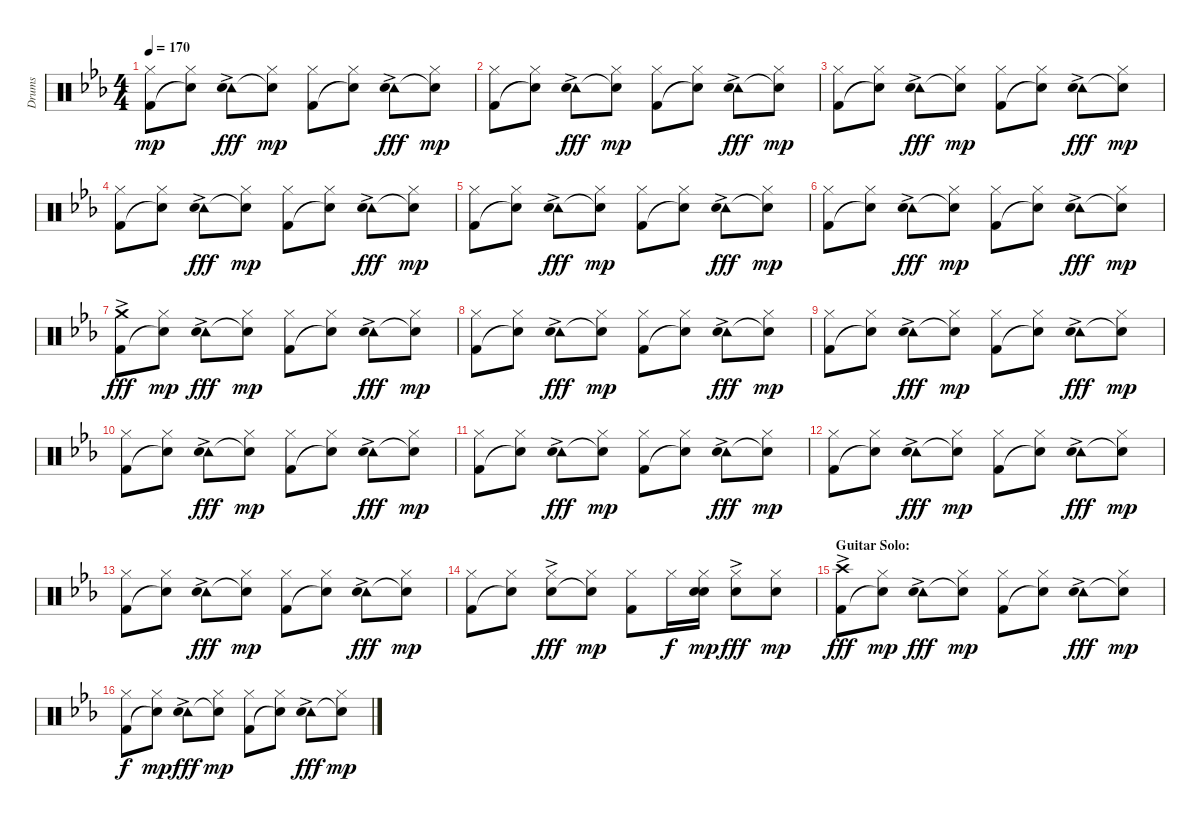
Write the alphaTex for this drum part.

\track ("Drums" "Drums") {instrument percussion}
\staff {score}
\articulation defaults
\ts (4 4)
\tempo 170
\clef neutral
\ks cminor
("Hi-Hat (closed)" "Kick (hit) 2").8{dy mp} ("Hi-Hat (closed)" "Snare (hit)"{t}).8 ("Tambourine (hit)"{ac} "Hand Clap (hit)").8{dy fff} ("Hi-Hat (closed)" "Snare (hit)"{t}).8{dy mp} ("Hi-Hat (closed)" "Kick (hit) 2").8 ("Hi-Hat (closed)" "Snare (hit)"{t}).8 ("Tambourine (hit)"{ac} "Hand Clap (hit)").8{dy fff} ("Hi-Hat (closed)" "Snare (hit)"{t}).8{dy mp} |
("Hi-Hat (closed)" "Kick (hit) 2").8 ("Hi-Hat (closed)" "Snare (hit)"{t}).8 ("Tambourine (hit)"{ac} "Hand Clap (hit)").8{dy fff} ("Hi-Hat (closed)" "Snare (hit)"{t}).8{dy mp} ("Hi-Hat (closed)" "Kick (hit) 2").8 ("Hi-Hat (closed)" "Snare (hit)"{t}).8 ("Tambourine (hit)"{ac} "Hand Clap (hit)").8{dy fff} ("Hi-Hat (closed)" "Snare (hit)"{t}).8{dy mp} |
("Hi-Hat (closed)" "Kick (hit) 2").8 ("Hi-Hat (closed)" "Snare (hit)"{t}).8 ("Tambourine (hit)"{ac} "Hand Clap (hit)").8{dy fff} ("Hi-Hat (closed)" "Snare (hit)"{t}).8{dy mp} ("Hi-Hat (closed)" "Kick (hit) 2").8 ("Hi-Hat (closed)" "Snare (hit)"{t}).8 ("Tambourine (hit)"{ac} "Hand Clap (hit)").8{dy fff} ("Hi-Hat (closed)" "Snare (hit)"{t}).8{dy mp} |
("Hi-Hat (closed)" "Kick (hit) 2").8 ("Hi-Hat (closed)" "Snare (hit)"{t}).8 ("Tambourine (hit)"{ac} "Hand Clap (hit)").8{dy fff} ("Hi-Hat (closed)" "Snare (hit)"{t}).8{dy mp} ("Hi-Hat (closed)" "Kick (hit) 2").8 ("Hi-Hat (closed)" "Snare (hit)"{t}).8 ("Tambourine (hit)"{ac} "Hand Clap (hit)").8{dy fff} ("Hi-Hat (closed)" "Snare (hit)"{t}).8{dy mp} |
("Hi-Hat (closed)" "Kick (hit) 2").8 ("Hi-Hat (closed)" "Snare (hit)"{t}).8 ("Tambourine (hit)"{ac} "Hand Clap (hit)").8{dy fff} ("Hi-Hat (closed)" "Snare (hit)"{t}).8{dy mp} ("Hi-Hat (closed)" "Kick (hit) 2").8 ("Hi-Hat (closed)" "Snare (hit)"{t}).8 ("Tambourine (hit)"{ac} "Hand Clap (hit)").8{dy fff} ("Hi-Hat (closed)" "Snare (hit)"{t}).8{dy mp} |
("Hi-Hat (closed)" "Kick (hit) 2").8 ("Hi-Hat (closed)" "Snare (hit)"{t}).8 ("Tambourine (hit)"{ac} "Hand Clap (hit)").8{dy fff} ("Hi-Hat (closed)" "Snare (hit)"{t}).8{dy mp} ("Hi-Hat (closed)" "Kick (hit) 2").8 ("Hi-Hat (closed)" "Snare (hit)"{t}).8 ("Tambourine (hit)"{ac} "Hand Clap (hit)").8{dy fff} ("Hi-Hat (closed)" "Snare (hit)"{t}).8{dy mp} |
("Crash medium (hit)"{ac} "Kick (hit) 2").8{dy fff} ("Hi-Hat (closed)" "Snare (hit)"{t}).8{dy mp} ("Tambourine (hit)"{ac} "Hand Clap (hit)").8{dy fff} ("Hi-Hat (closed)" "Snare (hit)"{t}).8{dy mp} ("Hi-Hat (closed)" "Kick (hit) 2").8 ("Hi-Hat (closed)" "Snare (hit)"{t}).8 ("Tambourine (hit)"{ac} "Hand Clap (hit)").8{dy fff} ("Hi-Hat (closed)" "Snare (hit)"{t}).8{dy mp} |
("Hi-Hat (closed)" "Kick (hit) 2").8 ("Hi-Hat (closed)" "Snare (hit)"{t}).8 ("Tambourine (hit)"{ac} "Hand Clap (hit)").8{dy fff} ("Hi-Hat (closed)" "Snare (hit)"{t}).8{dy mp} ("Hi-Hat (closed)" "Kick (hit) 2").8 ("Hi-Hat (closed)" "Snare (hit)"{t}).8 ("Tambourine (hit)"{ac} "Hand Clap (hit)").8{dy fff} ("Hi-Hat (closed)" "Snare (hit)"{t}).8{dy mp} |
("Hi-Hat (closed)" "Kick (hit) 2").8 ("Hi-Hat (closed)" "Snare (hit)"{t}).8 ("Tambourine (hit)"{ac} "Hand Clap (hit)").8{dy fff} ("Hi-Hat (closed)" "Snare (hit)"{t}).8{dy mp} ("Hi-Hat (closed)" "Kick (hit) 2").8 ("Hi-Hat (closed)" "Snare (hit)"{t}).8 ("Tambourine (hit)"{ac} "Hand Clap (hit)").8{dy fff} ("Hi-Hat (closed)" "Snare (hit)"{t}).8{dy mp} |
("Hi-Hat (closed)" "Kick (hit) 2").8 ("Hi-Hat (closed)" "Snare (hit)"{t}).8 ("Tambourine (hit)"{ac} "Hand Clap (hit)").8{dy fff} ("Hi-Hat (closed)" "Snare (hit)"{t}).8{dy mp} ("Hi-Hat (closed)" "Kick (hit) 2").8 ("Hi-Hat (closed)" "Snare (hit)"{t}).8 ("Tambourine (hit)"{ac} "Hand Clap (hit)").8{dy fff} ("Hi-Hat (closed)" "Snare (hit)"{t}).8{dy mp} |
("Hi-Hat (closed)" "Kick (hit) 2").8 ("Hi-Hat (closed)" "Snare (hit)"{t}).8 ("Tambourine (hit)"{ac} "Hand Clap (hit)").8{dy fff} ("Hi-Hat (closed)" "Snare (hit)"{t}).8{dy mp} ("Hi-Hat (closed)" "Kick (hit) 2").8 ("Hi-Hat (closed)" "Snare (hit)"{t}).8 ("Tambourine (hit)"{ac} "Hand Clap (hit)").8{dy fff} ("Hi-Hat (closed)" "Snare (hit)"{t}).8{dy mp} |
("Hi-Hat (closed)" "Kick (hit) 2").8 ("Hi-Hat (closed)" "Snare (hit)"{t}).8 ("Tambourine (hit)"{ac} "Hand Clap (hit)").8{dy fff} ("Hi-Hat (closed)" "Snare (hit)"{t}).8{dy mp} ("Hi-Hat (closed)" "Kick (hit) 2").8 ("Hi-Hat (closed)" "Snare (hit)"{t}).8 ("Tambourine (hit)"{ac} "Hand Clap (hit)").8{dy fff} ("Hi-Hat (closed)" "Snare (hit)"{t}).8{dy mp} |
("Hi-Hat (closed)" "Kick (hit) 2").8 ("Hi-Hat (closed)" "Snare (hit)"{t}).8 ("Tambourine (hit)"{ac} "Hand Clap (hit)").8{dy fff} ("Hi-Hat (closed)" "Snare (hit)"{t}).8{dy mp} ("Hi-Hat (closed)" "Kick (hit) 2").8 ("Hi-Hat (closed)" "Snare (hit)"{t}).8 ("Tambourine (hit)"{ac} "Hand Clap (hit)").8{dy fff} ("Hi-Hat (closed)" "Snare (hit)"{t}).8{dy mp} |
("Hi-Hat (closed)" "Kick (hit) 2").8 ("Hi-Hat (closed)" "Snare (hit)"{t}).8 ("Hi-Hat (closed)"{ac} "Hand Clap (hit)").8{dy fff} ("Hi-Hat (closed)" "Snare (hit)"{t}).8{dy mp} ("Hi-Hat (closed)" "Kick (hit) 2").8 "Hi-Hat (closed)".16{dy f} ("Hi-Hat (closed)" "Hand Clap (hit)" "Snare (hit)").16{dy mp} ("Hi-Hat (closed)"{ac} "Hand Clap (hit)").8{dy fff} ("Hi-Hat (closed)" "Hand Clap (hit)").8{dy mp} |
\section ("" "Guitar Solo:")
("Crash high (hit)"{ac} "Kick (hit) 2").8{dy fff} ("Hi-Hat (closed)" "Snare (hit)"{t}).8{dy mp} ("Tambourine (hit)"{ac} "Hand Clap (hit)").8{dy fff} ("Hi-Hat (closed)" "Snare (hit)"{t}).8{dy mp} ("Hi-Hat (closed)" "Kick (hit) 2").8 ("Hi-Hat (closed)" "Snare (hit)"{t}).8 ("Tambourine (hit)"{ac} "Hand Clap (hit)").8{dy fff} ("Hi-Hat (closed)" "Snare (hit)"{t}).8{dy mp} |
("Hi-Hat (closed)" "Kick (hit) 2").8{dy f} ("Hi-Hat (closed)" "Snare (hit)"{t}).8{dy mp} ("Tambourine (hit)"{ac} "Hand Clap (hit)").8{dy fff} ("Hi-Hat (closed)" "Snare (hit)"{t}).8{dy mp} ("Hi-Hat (closed)" "Kick (hit) 2").8 ("Hi-Hat (closed)" "Snare (hit)"{t}).8 ("Tambourine (hit)"{ac} "Hand Clap (hit)").8{dy fff} ("Hi-Hat (closed)" "Snare (hit)"{t}).8{dy mp}
